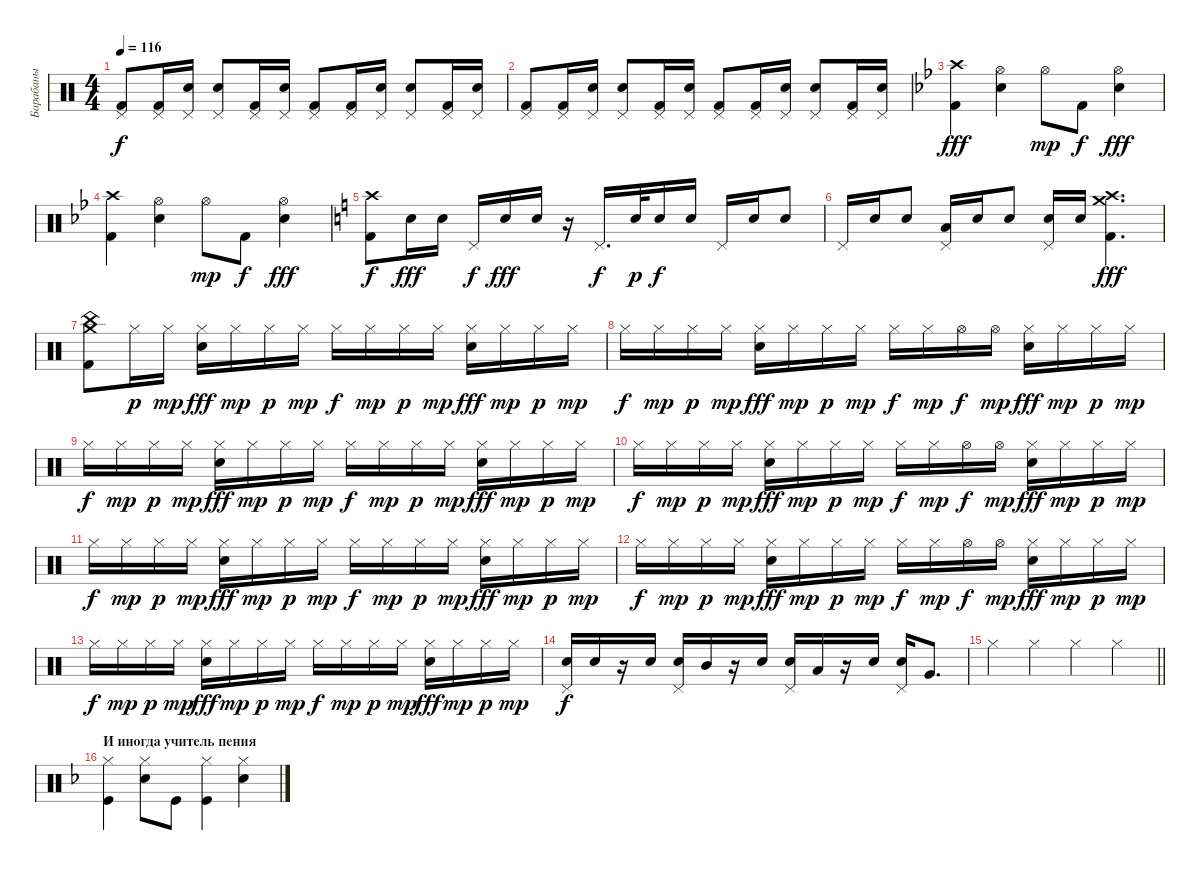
\track ("Барабаны" "Барабаны") {instrument percussion}
\staff {score}
\articulation defaults
\ts (4 4)
\tempo 116
\clef neutral
\ks c
("Kick (hit) 2" "Pedal Hi-Hat (hit)").8{dy f} ("Kick (hit) 2" "Pedal Hi-Hat (hit)").16 ("Snare (hit) 2" "Pedal Hi-Hat (hit)").16 ("Snare (hit) 2" "Pedal Hi-Hat (hit)").8 ("Kick (hit) 2" "Pedal Hi-Hat (hit)").16 ("Snare (hit) 2" "Pedal Hi-Hat (hit)").16 ("Kick (hit) 2" "Pedal Hi-Hat (hit)").8 ("Kick (hit) 2" "Pedal Hi-Hat (hit)").16 ("Snare (hit) 2" "Pedal Hi-Hat (hit)").16 ("Snare (hit) 2" "Pedal Hi-Hat (hit)").8 ("Kick (hit) 2" "Pedal Hi-Hat (hit)").16 ("Snare (hit) 2" "Pedal Hi-Hat (hit)").16 |
("Kick (hit) 2" "Pedal Hi-Hat (hit)").8 ("Kick (hit) 2" "Pedal Hi-Hat (hit)").16 ("Snare (hit) 2" "Pedal Hi-Hat (hit)").16 ("Snare (hit) 2" "Pedal Hi-Hat (hit)").8 ("Kick (hit) 2" "Pedal Hi-Hat (hit)").16 ("Snare (hit) 2" "Pedal Hi-Hat (hit)").16 ("Kick (hit) 2" "Pedal Hi-Hat (hit)").8 ("Kick (hit) 2" "Pedal Hi-Hat (hit)").16 ("Snare (hit) 2" "Pedal Hi-Hat (hit)").16 ("Snare (hit) 2" "Pedal Hi-Hat (hit)").8 ("Kick (hit) 2" "Pedal Hi-Hat (hit)").16 ("Snare (hit) 2" "Pedal Hi-Hat (hit)").16 |
\ks bb
("Crash high (hit)" "Kick (hit) 2").4{dy fff} ("Hi-Hat (open)" "Electric Snare (hit)").4 "Hi-Hat (open)".8{dy mp} "Kick (hit) 2".8{dy f} ("Hi-Hat (open)" "Electric Snare (hit)").4{dy fff} |
("Crash high (hit)" "Kick (hit) 2").4 ("Hi-Hat (open)" "Electric Snare (hit)").4 "Hi-Hat (open)".8{dy mp} "Kick (hit) 2".8{dy f} ("Hi-Hat (open)" "Electric Snare (hit)").4{dy fff} |
\ks c
("Crash high (hit)" "Kick (hit) 2").8{dy f} "Electric Snare (hit)".16{dy fff} "Electric Snare (hit)".16 "Pedal Hi-Hat (hit)".16{dy f} "Electric Snare (hit)".16{dy fff} "Electric Snare (hit)".16 r.16 "Pedal Hi-Hat (hit)".16{d dy f} "Electric Snare (hit)".32{dy p} "Electric Snare (hit)".16{dy f} "Electric Snare (hit)".16 "Pedal Hi-Hat (hit)".16 "Electric Snare (hit)".16 "Electric Snare (hit)".8 |
"Pedal Hi-Hat (hit)".16 "Electric Snare (hit)".16 "Electric Snare (hit)".8 ("Pedal Hi-Hat (hit)" "Low Tom (hit)").16 "Electric Snare (hit)".16 "Electric Snare (hit)".8 ("Pedal Hi-Hat (hit)" "Electric Snare (hit)").16 "Electric Snare (hit)".16 ("Crash high (hit)" "Crash medium (hit)" "Kick (hit) 2").4{d dy fff} |
("Crash medium (hit)" "China (hit)" "Kick (hit) 2").8 "Hi-Hat (closed)".16{dy p} "Hi-Hat (closed)".16{dy mp} ("Hi-Hat (closed)" "Electric Snare (hit)").16{dy fff} "Hi-Hat (closed)".16{dy mp} "Hi-Hat (closed)".16{dy p} "Hi-Hat (closed)".16{dy mp} "Hi-Hat (closed)".16{dy f} "Hi-Hat (closed)".16{dy mp} "Hi-Hat (closed)".16{dy p} "Hi-Hat (closed)".16{dy mp} ("Hi-Hat (closed)" "Electric Snare (hit)").16{dy fff} "Hi-Hat (closed)".16{dy mp} "Hi-Hat (closed)".16{dy p} "Hi-Hat (closed)".16{dy mp} |
"Hi-Hat (closed)".16{dy f} "Hi-Hat (closed)".16{dy mp} "Hi-Hat (closed)".16{dy p} "Hi-Hat (closed)".16{dy mp} ("Hi-Hat (closed)" "Electric Snare (hit)").16{dy fff} "Hi-Hat (closed)".16{dy mp} "Hi-Hat (closed)".16{dy p} "Hi-Hat (closed)".16{dy mp} "Hi-Hat (closed)".16{dy f} "Hi-Hat (closed)".16{dy mp} "Hi-Hat (open)".16{dy f} "Hi-Hat (open)".16{dy mp} ("Hi-Hat (closed)" "Electric Snare (hit)").16{dy fff} "Hi-Hat (closed)".16{dy mp} "Hi-Hat (closed)".16{dy p} "Hi-Hat (closed)".16{dy mp} |
"Hi-Hat (closed)".16{dy f} "Hi-Hat (closed)".16{dy mp} "Hi-Hat (closed)".16{dy p} "Hi-Hat (closed)".16{dy mp} ("Hi-Hat (closed)" "Electric Snare (hit)").16{dy fff} "Hi-Hat (closed)".16{dy mp} "Hi-Hat (closed)".16{dy p} "Hi-Hat (closed)".16{dy mp} "Hi-Hat (closed)".16{dy f} "Hi-Hat (closed)".16{dy mp} "Hi-Hat (closed)".16{dy p} "Hi-Hat (closed)".16{dy mp} ("Hi-Hat (closed)" "Electric Snare (hit)").16{dy fff} "Hi-Hat (closed)".16{dy mp} "Hi-Hat (closed)".16{dy p} "Hi-Hat (closed)".16{dy mp} |
"Hi-Hat (closed)".16{dy f} "Hi-Hat (closed)".16{dy mp} "Hi-Hat (closed)".16{dy p} "Hi-Hat (closed)".16{dy mp} ("Hi-Hat (closed)" "Electric Snare (hit)").16{dy fff} "Hi-Hat (closed)".16{dy mp} "Hi-Hat (closed)".16{dy p} "Hi-Hat (closed)".16{dy mp} "Hi-Hat (closed)".16{dy f} "Hi-Hat (closed)".16{dy mp} "Hi-Hat (open)".16{dy f} "Hi-Hat (open)".16{dy mp} ("Hi-Hat (closed)" "Electric Snare (hit)").16{dy fff} "Hi-Hat (closed)".16{dy mp} "Hi-Hat (closed)".16{dy p} "Hi-Hat (closed)".16{dy mp} |
"Hi-Hat (closed)".16{dy f} "Hi-Hat (closed)".16{dy mp} "Hi-Hat (closed)".16{dy p} "Hi-Hat (closed)".16{dy mp} ("Hi-Hat (closed)" "Electric Snare (hit)").16{dy fff} "Hi-Hat (closed)".16{dy mp} "Hi-Hat (closed)".16{dy p} "Hi-Hat (closed)".16{dy mp} "Hi-Hat (closed)".16{dy f} "Hi-Hat (closed)".16{dy mp} "Hi-Hat (closed)".16{dy p} "Hi-Hat (closed)".16{dy mp} ("Hi-Hat (closed)" "Electric Snare (hit)").16{dy fff} "Hi-Hat (closed)".16{dy mp} "Hi-Hat (closed)".16{dy p} "Hi-Hat (closed)".16{dy mp} |
"Hi-Hat (closed)".16{dy f} "Hi-Hat (closed)".16{dy mp} "Hi-Hat (closed)".16{dy p} "Hi-Hat (closed)".16{dy mp} ("Hi-Hat (closed)" "Electric Snare (hit)").16{dy fff} "Hi-Hat (closed)".16{dy mp} "Hi-Hat (closed)".16{dy p} "Hi-Hat (closed)".16{dy mp} "Hi-Hat (closed)".16{dy f} "Hi-Hat (closed)".16{dy mp} "Hi-Hat (open)".16{dy f} "Hi-Hat (open)".16{dy mp} ("Hi-Hat (closed)" "Electric Snare (hit)").16{dy fff} "Hi-Hat (closed)".16{dy mp} "Hi-Hat (closed)".16{dy p} "Hi-Hat (closed)".16{dy mp} |
"Hi-Hat (closed)".16{dy f} "Hi-Hat (closed)".16{dy mp} "Hi-Hat (closed)".16{dy p} "Hi-Hat (closed)".16{dy mp} ("Hi-Hat (closed)" "Electric Snare (hit)").16{dy fff} "Hi-Hat (closed)".16{dy mp} "Hi-Hat (closed)".16{dy p} "Hi-Hat (closed)".16{dy mp} "Hi-Hat (closed)".16{dy f} "Hi-Hat (closed)".16{dy mp} "Hi-Hat (closed)".16{dy p} "Hi-Hat (closed)".16{dy mp} ("Hi-Hat (closed)" "Electric Snare (hit)").16{dy fff} "Hi-Hat (closed)".16{dy mp} "Hi-Hat (closed)".16{dy p} "Hi-Hat (closed)".16{dy mp} |
("Pedal Hi-Hat (hit)" "Electric Snare (hit)").16{dy f} "Electric Snare (hit)".16 r.16 "Electric Snare (hit)".16 ("Pedal Hi-Hat (hit)" "Electric Snare (hit)").16 "Mid Tom (hit)".16 r.16 "Electric Snare (hit)".16 ("Pedal Hi-Hat (hit)" "Electric Snare (hit)").16 "Low Tom (hit)".16 r.16 "Electric Snare (hit)".16 ("Pedal Hi-Hat (hit)" "Electric Snare (hit)").16 "Very Low Tom (hit)".8{d} |
\barLineRight lightlight "Hi-Hat (closed)".4 "Hi-Hat (closed)".4 "Hi-Hat (closed)".4 "Hi-Hat (closed)".4
|
\section ("" "И иногда учитель пения")
\ks dminor
("Hi-Hat (closed)" "Kick (hit)").4 ("Hi-Hat (closed)" "Snare (hit) 2").8 "Kick (hit)".8 ("Hi-Hat (closed)" "Kick (hit)").4 ("Hi-Hat (closed)" "Snare (hit) 2").4
